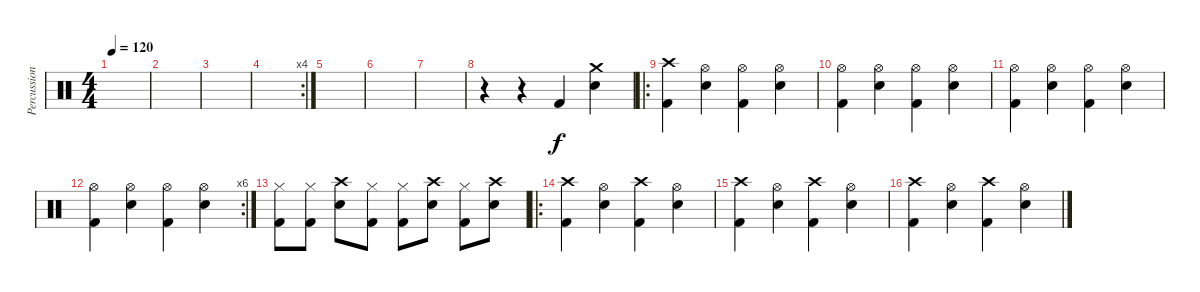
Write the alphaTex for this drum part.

\track ("Percussions" "Percussion") {instrument percussion}
\staff {score}
\articulation defaults
\ts (4 4)
\tempo 120
\clef neutral
\ks c
|
|
|
\rc 4
|
|
|
|
r.4 r.4 "Kick (hit) 2".4 ("Crash medium (hit)" "Electric Snare (hit)").4 |
\ro
("Crash high (hit)" "Kick (hit) 2").4 ("Hi-Hat (open)" "Snare (hit) 2").4 ("Hi-Hat (open)" "Kick (hit) 2").4 ("Hi-Hat (open)" "Snare (hit) 2").4 |
("Hi-Hat (open)" "Kick (hit) 2").4 ("Hi-Hat (open)" "Snare (hit) 2").4 ("Hi-Hat (open)" "Kick (hit) 2").4 ("Hi-Hat (open)" "Snare (hit) 2").4 |
("Hi-Hat (open)" "Kick (hit) 2").4 ("Hi-Hat (open)" "Snare (hit) 2").4 ("Hi-Hat (open)" "Kick (hit) 2").4 ("Hi-Hat (open)" "Snare (hit) 2").4 |
\rc 6
("Hi-Hat (open)" "Kick (hit) 2").4 ("Hi-Hat (open)" "Snare (hit) 2").4 ("Hi-Hat (open)" "Kick (hit) 2").4 ("Hi-Hat (open)" "Snare (hit) 2").4 |
("Hi-Hat (closed)" "Kick (hit) 2").8 ("Hi-Hat (closed)" "Kick (hit) 2").8 ("Crash high (hit)" "Snare (hit) 2").8 ("Hi-Hat (closed)" "Kick (hit) 2").8 ("Hi-Hat (closed)" "Kick (hit) 2").8 ("Crash high (hit)" "Snare (hit) 2").8 ("Hi-Hat (closed)" "Kick (hit) 2").8 ("Crash high (hit)" "Snare (hit) 2").8 |
\ro
("Crash high (hit)" "Kick (hit) 2").4 ("Hi-Hat (open)" "Snare (hit) 2").4 ("Crash high (hit)" "Kick (hit) 2").4 ("Hi-Hat (open)" "Snare (hit) 2").4 |
("Crash high (hit)" "Kick (hit) 2").4 ("Hi-Hat (open)" "Snare (hit) 2").4 ("Crash high (hit)" "Kick (hit) 2").4 ("Hi-Hat (open)" "Snare (hit) 2").4 |
("Crash high (hit)" "Kick (hit) 2").4 ("Hi-Hat (open)" "Snare (hit) 2").4 ("Crash high (hit)" "Kick (hit) 2").4 ("Hi-Hat (open)" "Snare (hit) 2").4
